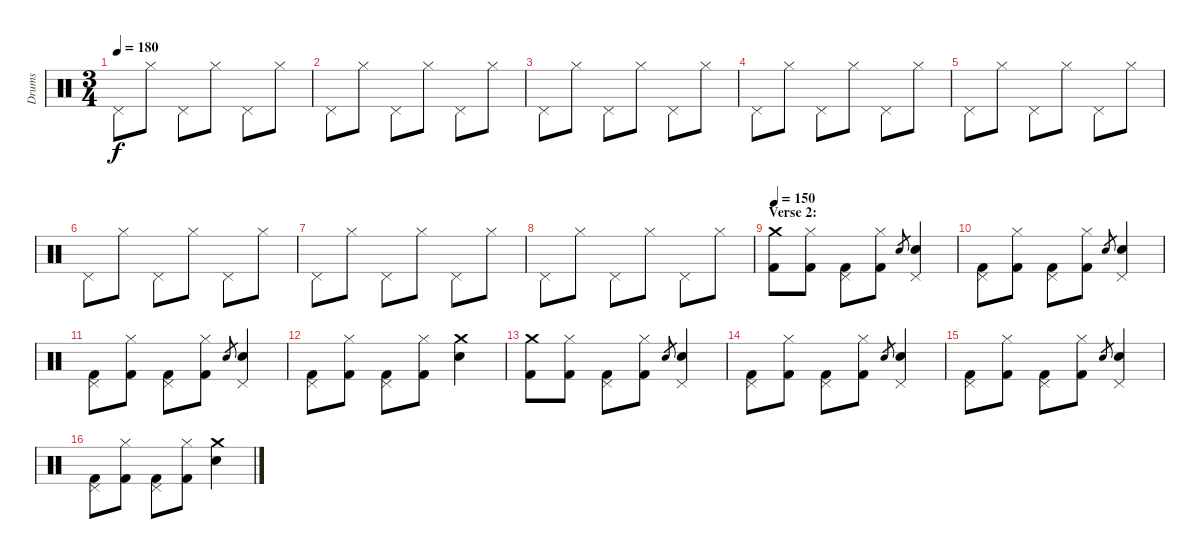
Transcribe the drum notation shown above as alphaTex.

\track ("Drums" "Drums") {instrument percussion}
\staff {score}
\articulation defaults
\ts (3 4)
\tempo 180
\clef neutral
\ks c "Pedal Hi-Hat (hit)".8{dy f} "Hi-Hat (closed)".8 "Pedal Hi-Hat (hit)".8 "Hi-Hat (closed)".8 "Pedal Hi-Hat (hit)".8 "Hi-Hat (closed)".8
|
"Pedal Hi-Hat (hit)".8 "Hi-Hat (closed)".8 "Pedal Hi-Hat (hit)".8 "Hi-Hat (closed)".8 "Pedal Hi-Hat (hit)".8 "Hi-Hat (closed)".8 |
"Pedal Hi-Hat (hit)".8 "Hi-Hat (closed)".8 "Pedal Hi-Hat (hit)".8 "Hi-Hat (closed)".8 "Pedal Hi-Hat (hit)".8 "Hi-Hat (closed)".8 |
"Pedal Hi-Hat (hit)".8 "Hi-Hat (closed)".8 "Pedal Hi-Hat (hit)".8 "Hi-Hat (closed)".8 "Pedal Hi-Hat (hit)".8 "Hi-Hat (closed)".8 |
"Pedal Hi-Hat (hit)".8 "Hi-Hat (closed)".8 "Pedal Hi-Hat (hit)".8 "Hi-Hat (closed)".8 "Pedal Hi-Hat (hit)".8 "Hi-Hat (closed)".8 |
"Pedal Hi-Hat (hit)".8 "Hi-Hat (closed)".8 "Pedal Hi-Hat (hit)".8 "Hi-Hat (closed)".8 "Pedal Hi-Hat (hit)".8 "Hi-Hat (closed)".8 |
"Pedal Hi-Hat (hit)".8 "Hi-Hat (closed)".8 "Pedal Hi-Hat (hit)".8 "Hi-Hat (closed)".8 "Pedal Hi-Hat (hit)".8 "Hi-Hat (closed)".8 |
"Pedal Hi-Hat (hit)".8 "Hi-Hat (closed)".8 "Pedal Hi-Hat (hit)".8 "Hi-Hat (closed)".8 "Pedal Hi-Hat (hit)".8 "Hi-Hat (closed)".8 |
\section ("" "Verse 2:")
\tempo 150
("Crash medium (hit)" "Kick (hit) 2").8 ("Hi-Hat (closed)" "Kick (hit) 2").8 ("Pedal Hi-Hat (hit)" "Kick (hit) 2").8 ("Hi-Hat (closed)" "Kick (hit) 2").8 "Electric Snare (hit)".8{gr} ("Pedal Hi-Hat (hit)" "Electric Snare (hit)").4 |
("Pedal Hi-Hat (hit)" "Kick (hit) 2").8 ("Hi-Hat (closed)" "Kick (hit) 2").8 ("Pedal Hi-Hat (hit)" "Kick (hit) 2").8 ("Hi-Hat (closed)" "Kick (hit) 2").8 "Electric Snare (hit)".8{gr} ("Pedal Hi-Hat (hit)" "Electric Snare (hit)").4 |
("Pedal Hi-Hat (hit)" "Kick (hit) 2").8 ("Hi-Hat (closed)" "Kick (hit) 2").8 ("Pedal Hi-Hat (hit)" "Kick (hit) 2").8 ("Hi-Hat (closed)" "Kick (hit) 2").8 "Electric Snare (hit)".8{gr} ("Pedal Hi-Hat (hit)" "Electric Snare (hit)").4 |
("Pedal Hi-Hat (hit)" "Kick (hit) 2").8 ("Hi-Hat (closed)" "Kick (hit) 2").8 ("Pedal Hi-Hat (hit)" "Kick (hit) 2").8 ("Hi-Hat (closed)" "Kick (hit) 2").8 ("Crash medium (hit)" "Electric Snare (hit)").4 |
("Crash medium (hit)" "Kick (hit) 2").8 ("Hi-Hat (closed)" "Kick (hit) 2").8 ("Pedal Hi-Hat (hit)" "Kick (hit) 2").8 ("Hi-Hat (closed)" "Kick (hit) 2").8 "Electric Snare (hit)".8{gr} ("Pedal Hi-Hat (hit)" "Electric Snare (hit)").4 |
("Pedal Hi-Hat (hit)" "Kick (hit) 2").8 ("Hi-Hat (closed)" "Kick (hit) 2").8 ("Pedal Hi-Hat (hit)" "Kick (hit) 2").8 ("Hi-Hat (closed)" "Kick (hit) 2").8 "Electric Snare (hit)".8{gr} ("Pedal Hi-Hat (hit)" "Electric Snare (hit)").4 |
("Pedal Hi-Hat (hit)" "Kick (hit) 2").8 ("Hi-Hat (closed)" "Kick (hit) 2").8 ("Pedal Hi-Hat (hit)" "Kick (hit) 2").8 ("Hi-Hat (closed)" "Kick (hit) 2").8 "Electric Snare (hit)".8{gr} ("Pedal Hi-Hat (hit)" "Electric Snare (hit)").4 |
("Pedal Hi-Hat (hit)" "Kick (hit) 2").8 ("Hi-Hat (closed)" "Kick (hit) 2").8 ("Pedal Hi-Hat (hit)" "Kick (hit) 2").8 ("Hi-Hat (closed)" "Kick (hit) 2").8 ("Crash medium (hit)" "Electric Snare (hit)").4
